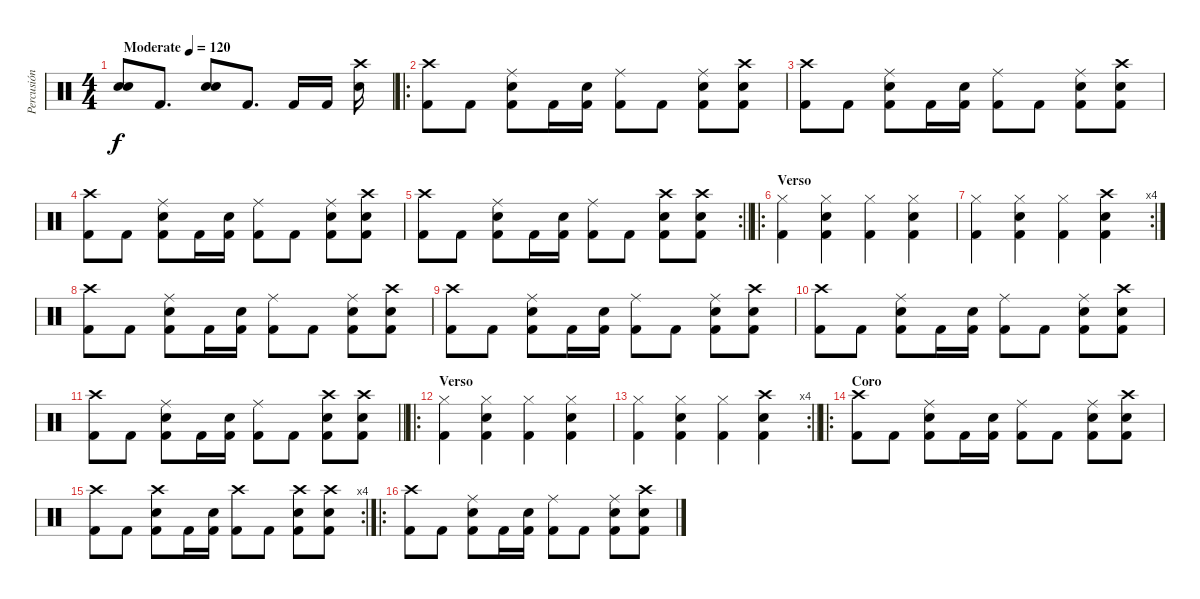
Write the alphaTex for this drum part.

\track ("Percusión" "Percusión") {instrument percussion}
\staff {score}
\articulation defaults
\ts (4 4)
\tempo (120 "Moderate")
\clef neutral
\ks c
("Snare (hit) 2" "Snare (hit) 2").8{dy f} "Kick (hit) 2".8{d} ("Snare (hit) 2" "Snare (hit) 2").8 "Kick (hit) 2".8{d} "Kick (hit) 2".16 "Kick (hit) 2".16 ("Snare (hit) 2" "Crash high (hit)").16 |
\ro
("Kick (hit) 2" "Crash high (hit)").8 "Kick (hit) 2".8 ("Kick (hit) 2" "Snare (hit) 2" "Ride (middle)").8 "Kick (hit) 2".16 ("Kick (hit) 2" "Snare (hit) 2").16 ("Kick (hit) 2" "Ride (middle)").8 "Kick (hit) 2".8 ("Kick (hit) 2" "Snare (hit) 2" "Ride (middle)").8 ("Kick (hit) 2" "Snare (hit) 2" "Crash high (hit)").8 |
("Kick (hit) 2" "Crash high (hit)").8 "Kick (hit) 2".8 ("Kick (hit) 2" "Snare (hit) 2" "Ride (middle)").8 "Kick (hit) 2".16 ("Kick (hit) 2" "Snare (hit) 2").16 ("Kick (hit) 2" "Ride (middle)").8 "Kick (hit) 2".8 ("Kick (hit) 2" "Snare (hit) 2" "Ride (middle)").8 ("Kick (hit) 2" "Snare (hit) 2" "Crash high (hit)").8 |
("Kick (hit) 2" "Crash high (hit)").8 "Kick (hit) 2".8 ("Kick (hit) 2" "Snare (hit) 2" "Ride (middle)").8 "Kick (hit) 2".16 ("Kick (hit) 2" "Snare (hit) 2").16 ("Kick (hit) 2" "Ride (middle)").8 "Kick (hit) 2".8 ("Kick (hit) 2" "Snare (hit) 2" "Ride (middle)").8 ("Kick (hit) 2" "Snare (hit) 2" "Crash high (hit)").8 |
\rc 2
\barLineRight lightlight
("Kick (hit) 2" "Crash high (hit)").8 "Kick (hit) 2".8 ("Kick (hit) 2" "Snare (hit) 2" "Ride (middle)").8 "Kick (hit) 2".16 ("Kick (hit) 2" "Snare (hit) 2").16 ("Kick (hit) 2" "Ride (middle)").8 "Kick (hit) 2".8 ("Kick (hit) 2" "Snare (hit) 2" "Crash high (hit)").8 ("Kick (hit) 2" "Snare (hit) 2" "Crash high (hit)").8 |
\ro
\section ("" "Verso")
("Kick (hit) 2" "Hi-Hat (closed)").4 ("Kick (hit) 2" "Snare (hit) 2" "Hi-Hat (closed)").4 ("Kick (hit) 2" "Hi-Hat (closed)").4 ("Kick (hit) 2" "Snare (hit) 2" "Hi-Hat (closed)").4 |
\rc 4
("Kick (hit) 2" "Hi-Hat (closed)").4 ("Kick (hit) 2" "Snare (hit) 2" "Hi-Hat (closed)").4 ("Kick (hit) 2" "Hi-Hat (closed)").4 ("Kick (hit) 2" "Snare (hit) 2" "Crash high (hit)").4 |
("Kick (hit) 2" "Crash high (hit)").8 "Kick (hit) 2".8 ("Kick (hit) 2" "Snare (hit) 2" "Ride (middle)").8 "Kick (hit) 2".16 ("Kick (hit) 2" "Snare (hit) 2").16 ("Kick (hit) 2" "Ride (middle)").8 "Kick (hit) 2".8 ("Kick (hit) 2" "Snare (hit) 2" "Ride (middle)").8 ("Kick (hit) 2" "Snare (hit) 2" "Crash high (hit)").8 |
("Kick (hit) 2" "Crash high (hit)").8 "Kick (hit) 2".8 ("Kick (hit) 2" "Snare (hit) 2" "Ride (middle)").8 "Kick (hit) 2".16 ("Kick (hit) 2" "Snare (hit) 2").16 ("Kick (hit) 2" "Ride (middle)").8 "Kick (hit) 2".8 ("Kick (hit) 2" "Snare (hit) 2" "Ride (middle)").8 ("Kick (hit) 2" "Snare (hit) 2" "Crash high (hit)").8 |
("Kick (hit) 2" "Crash high (hit)").8 "Kick (hit) 2".8 ("Kick (hit) 2" "Snare (hit) 2" "Ride (middle)").8 "Kick (hit) 2".16 ("Kick (hit) 2" "Snare (hit) 2").16 ("Kick (hit) 2" "Ride (middle)").8 "Kick (hit) 2".8 ("Kick (hit) 2" "Snare (hit) 2" "Ride (middle)").8 ("Kick (hit) 2" "Snare (hit) 2" "Crash high (hit)").8 |
\barLineRight lightlight
("Kick (hit) 2" "Crash high (hit)").8 "Kick (hit) 2".8 ("Kick (hit) 2" "Snare (hit) 2" "Ride (middle)").8 "Kick (hit) 2".16 ("Kick (hit) 2" "Snare (hit) 2").16 ("Kick (hit) 2" "Ride (middle)").8 "Kick (hit) 2".8 ("Kick (hit) 2" "Snare (hit) 2" "Crash high (hit)").8 ("Kick (hit) 2" "Snare (hit) 2" "Crash high (hit)").8 |
\ro
\section ("" "Verso")
("Kick (hit) 2" "Hi-Hat (closed)").4 ("Kick (hit) 2" "Snare (hit) 2" "Hi-Hat (closed)").4 ("Kick (hit) 2" "Hi-Hat (closed)").4 ("Kick (hit) 2" "Snare (hit) 2" "Hi-Hat (closed)").4 |
\rc 4
\barLineRight lightlight
("Kick (hit) 2" "Hi-Hat (closed)").4 ("Kick (hit) 2" "Snare (hit) 2" "Hi-Hat (closed)").4 ("Kick (hit) 2" "Hi-Hat (closed)").4 ("Kick (hit) 2" "Snare (hit) 2" "Crash high (hit)").4 |
\ro
\section ("" "Coro")
("Kick (hit) 2" "Crash high (hit)").8 "Kick (hit) 2".8 ("Kick (hit) 2" "Snare (hit) 2" "Ride (middle)").8 "Kick (hit) 2".16 ("Kick (hit) 2" "Snare (hit) 2").16 ("Kick (hit) 2" "Ride (middle)").8 "Kick (hit) 2".8 ("Kick (hit) 2" "Snare (hit) 2" "Ride (middle)").8 ("Kick (hit) 2" "Snare (hit) 2" "Crash high (hit)").8 |
\rc 4
("Kick (hit) 2" "Crash high (hit)").8 "Kick (hit) 2".8 ("Kick (hit) 2" "Snare (hit) 2" "Crash high (hit)").8 "Kick (hit) 2".16 ("Kick (hit) 2" "Snare (hit) 2").16 ("Kick (hit) 2" "Crash high (hit)").8 "Kick (hit) 2".8 ("Kick (hit) 2" "Snare (hit) 2" "Crash high (hit)").8 ("Kick (hit) 2" "Snare (hit) 2" "Crash high (hit)").8 |
\ro
("Kick (hit) 2" "Crash high (hit)").8 "Kick (hit) 2".8 ("Kick (hit) 2" "Snare (hit) 2" "Ride (middle)").8 "Kick (hit) 2".16 ("Kick (hit) 2" "Snare (hit) 2").16 ("Kick (hit) 2" "Ride (middle)").8 "Kick (hit) 2".8 ("Kick (hit) 2" "Snare (hit) 2" "Ride (middle)").8 ("Kick (hit) 2" "Snare (hit) 2" "Crash high (hit)").8
